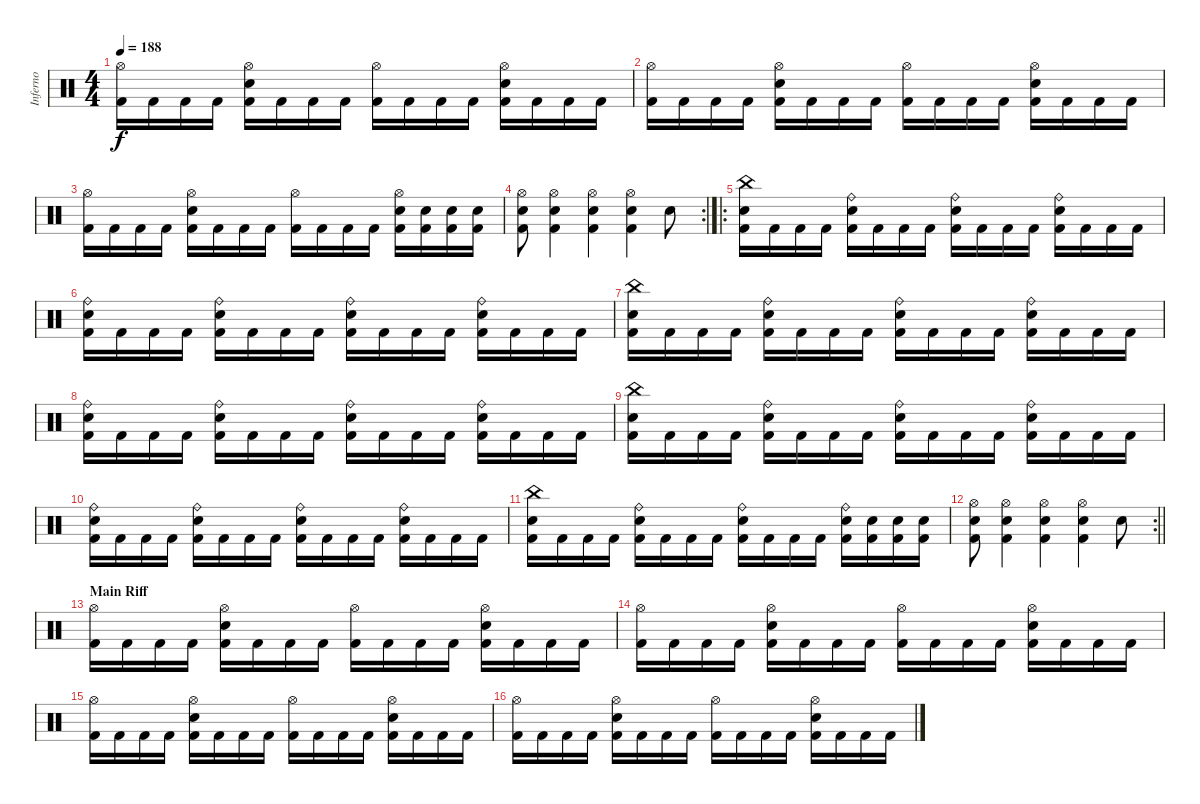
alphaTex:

\track ("Inferno" "Inferno") {instrument percussion}
\staff {score}
\articulation defaults
\ts (4 4)
\tempo 188
\clef neutral
\ks c
("Hi-Hat (open)" "Kick (hit) 2").16{dy f} "Kick (hit) 2".16 "Kick (hit) 2".16 "Kick (hit) 2".16 ("Hi-Hat (open)" "Snare (hit) 2" "Kick (hit) 2").16 "Kick (hit) 2".16 "Kick (hit) 2".16 "Kick (hit) 2".16 ("Hi-Hat (open)" "Kick (hit) 2").16 "Kick (hit) 2".16 "Kick (hit) 2".16 "Kick (hit) 2".16 ("Hi-Hat (open)" "Snare (hit) 2" "Kick (hit) 2").16 "Kick (hit) 2".16 "Kick (hit) 2".16 "Kick (hit) 2".16 |
("Hi-Hat (open)" "Kick (hit) 2").16 "Kick (hit) 2".16 "Kick (hit) 2".16 "Kick (hit) 2".16 ("Hi-Hat (open)" "Snare (hit) 2" "Kick (hit) 2").16 "Kick (hit) 2".16 "Kick (hit) 2".16 "Kick (hit) 2".16 ("Hi-Hat (open)" "Kick (hit) 2").16 "Kick (hit) 2".16 "Kick (hit) 2".16 "Kick (hit) 2".16 ("Hi-Hat (open)" "Snare (hit) 2" "Kick (hit) 2").16 "Kick (hit) 2".16 "Kick (hit) 2".16 "Kick (hit) 2".16 |
("Hi-Hat (open)" "Kick (hit) 2").16 "Kick (hit) 2".16 "Kick (hit) 2".16 "Kick (hit) 2".16 ("Hi-Hat (open)" "Snare (hit) 2" "Kick (hit) 2").16 "Kick (hit) 2".16 "Kick (hit) 2".16 "Kick (hit) 2".16 ("Hi-Hat (open)" "Kick (hit) 2").16 "Kick (hit) 2".16 "Kick (hit) 2".16 "Kick (hit) 2".16 ("Hi-Hat (open)" "Snare (hit) 2" "Kick (hit) 2").16 ("Snare (hit) 2" "Kick (hit) 2").16 ("Snare (hit) 2" "Kick (hit) 2").16 ("Snare (hit) 2" "Kick (hit) 2").16 |
\rc 2
("Hi-Hat (open)" "Snare (hit) 2" "Kick (hit) 2").8 ("Hi-Hat (open)" "Snare (hit) 2" "Kick (hit) 2").4 ("Hi-Hat (open)" "Snare (hit) 2" "Kick (hit) 2").4 ("Hi-Hat (open)" "Snare (hit) 2" "Kick (hit) 2").4 "Snare (hit) 2".8 |
\ro
("China (hit)" "Snare (hit) 2" "Kick (hit) 2").16 "Kick (hit) 2".16 "Kick (hit) 2".16 "Kick (hit) 2".16 ("Ride (bell)" "Snare (hit) 2" "Kick (hit) 2").16 "Kick (hit) 2".16 "Kick (hit) 2".16 "Kick (hit) 2".16 ("Ride (bell)" "Snare (hit) 2" "Kick (hit) 2").16 "Kick (hit) 2".16 "Kick (hit) 2".16 "Kick (hit) 2".16 ("Ride (bell)" "Snare (hit) 2" "Kick (hit) 2").16 "Kick (hit) 2".16 "Kick (hit) 2".16 "Kick (hit) 2".16 |
("Ride (bell)" "Snare (hit) 2" "Kick (hit) 2").16 "Kick (hit) 2".16 "Kick (hit) 2".16 "Kick (hit) 2".16 ("Ride (bell)" "Snare (hit) 2" "Kick (hit) 2").16 "Kick (hit) 2".16 "Kick (hit) 2".16 "Kick (hit) 2".16 ("Ride (bell)" "Snare (hit) 2" "Kick (hit) 2").16 "Kick (hit) 2".16 "Kick (hit) 2".16 "Kick (hit) 2".16 ("Ride (bell)" "Snare (hit) 2" "Kick (hit) 2").16 "Kick (hit) 2".16 "Kick (hit) 2".16 "Kick (hit) 2".16 |
("China (hit)" "Snare (hit) 2" "Kick (hit) 2").16 "Kick (hit) 2".16 "Kick (hit) 2".16 "Kick (hit) 2".16 ("Ride (bell)" "Snare (hit) 2" "Kick (hit) 2").16 "Kick (hit) 2".16 "Kick (hit) 2".16 "Kick (hit) 2".16 ("Ride (bell)" "Snare (hit) 2" "Kick (hit) 2").16 "Kick (hit) 2".16 "Kick (hit) 2".16 "Kick (hit) 2".16 ("Ride (bell)" "Snare (hit) 2" "Kick (hit) 2").16 "Kick (hit) 2".16 "Kick (hit) 2".16 "Kick (hit) 2".16 |
("Ride (bell)" "Snare (hit) 2" "Kick (hit) 2").16 "Kick (hit) 2".16 "Kick (hit) 2".16 "Kick (hit) 2".16 ("Ride (bell)" "Snare (hit) 2" "Kick (hit) 2").16 "Kick (hit) 2".16 "Kick (hit) 2".16 "Kick (hit) 2".16 ("Ride (bell)" "Snare (hit) 2" "Kick (hit) 2").16 "Kick (hit) 2".16 "Kick (hit) 2".16 "Kick (hit) 2".16 ("Ride (bell)" "Snare (hit) 2" "Kick (hit) 2").16 "Kick (hit) 2".16 "Kick (hit) 2".16 "Kick (hit) 2".16 |
("China (hit)" "Snare (hit) 2" "Kick (hit) 2").16 "Kick (hit) 2".16 "Kick (hit) 2".16 "Kick (hit) 2".16 ("Ride (bell)" "Snare (hit) 2" "Kick (hit) 2").16 "Kick (hit) 2".16 "Kick (hit) 2".16 "Kick (hit) 2".16 ("Ride (bell)" "Snare (hit) 2" "Kick (hit) 2").16 "Kick (hit) 2".16 "Kick (hit) 2".16 "Kick (hit) 2".16 ("Ride (bell)" "Snare (hit) 2" "Kick (hit) 2").16 "Kick (hit) 2".16 "Kick (hit) 2".16 "Kick (hit) 2".16 |
("Ride (bell)" "Snare (hit) 2" "Kick (hit) 2").16 "Kick (hit) 2".16 "Kick (hit) 2".16 "Kick (hit) 2".16 ("Ride (bell)" "Snare (hit) 2" "Kick (hit) 2").16 "Kick (hit) 2".16 "Kick (hit) 2".16 "Kick (hit) 2".16 ("Ride (bell)" "Snare (hit) 2" "Kick (hit) 2").16 "Kick (hit) 2".16 "Kick (hit) 2".16 "Kick (hit) 2".16 ("Ride (bell)" "Snare (hit) 2" "Kick (hit) 2").16 "Kick (hit) 2".16 "Kick (hit) 2".16 "Kick (hit) 2".16 |
("China (hit)" "Snare (hit) 2" "Kick (hit) 2").16 "Kick (hit) 2".16 "Kick (hit) 2".16 "Kick (hit) 2".16 ("Ride (bell)" "Snare (hit) 2" "Kick (hit) 2").16 "Kick (hit) 2".16 "Kick (hit) 2".16 "Kick (hit) 2".16 ("Ride (bell)" "Snare (hit) 2" "Kick (hit) 2").16 "Kick (hit) 2".16 "Kick (hit) 2".16 "Kick (hit) 2".16 ("Ride (bell)" "Snare (hit) 2" "Kick (hit) 2").16 ("Snare (hit) 2" "Kick (hit) 2").16 ("Snare (hit) 2" "Kick (hit) 2").16 ("Snare (hit) 2" "Kick (hit) 2").16 |
\rc 2
\barLineRight lightlight
("Hi-Hat (open)" "Snare (hit) 2" "Kick (hit) 2").8 ("Hi-Hat (open)" "Snare (hit) 2" "Kick (hit) 2").4 ("Hi-Hat (open)" "Snare (hit) 2" "Kick (hit) 2").4 ("Hi-Hat (open)" "Snare (hit) 2" "Kick (hit) 2").4 "Snare (hit) 2".8 |
\section ("" "Main Riff")
("Hi-Hat (open)" "Kick (hit) 2").16 "Kick (hit) 2".16 "Kick (hit) 2".16 "Kick (hit) 2".16 ("Hi-Hat (open)" "Snare (hit) 2" "Kick (hit) 2").16 "Kick (hit) 2".16 "Kick (hit) 2".16 "Kick (hit) 2".16 ("Hi-Hat (open)" "Kick (hit) 2").16 "Kick (hit) 2".16 "Kick (hit) 2".16 "Kick (hit) 2".16 ("Hi-Hat (open)" "Snare (hit) 2" "Kick (hit) 2").16 "Kick (hit) 2".16 "Kick (hit) 2".16 "Kick (hit) 2".16 |
("Hi-Hat (open)" "Kick (hit) 2").16 "Kick (hit) 2".16 "Kick (hit) 2".16 "Kick (hit) 2".16 ("Hi-Hat (open)" "Snare (hit) 2" "Kick (hit) 2").16 "Kick (hit) 2".16 "Kick (hit) 2".16 "Kick (hit) 2".16 ("Hi-Hat (open)" "Kick (hit) 2").16 "Kick (hit) 2".16 "Kick (hit) 2".16 "Kick (hit) 2".16 ("Hi-Hat (open)" "Snare (hit) 2" "Kick (hit) 2").16 "Kick (hit) 2".16 "Kick (hit) 2".16 "Kick (hit) 2".16 |
("Hi-Hat (open)" "Kick (hit) 2").16 "Kick (hit) 2".16 "Kick (hit) 2".16 "Kick (hit) 2".16 ("Hi-Hat (open)" "Snare (hit) 2" "Kick (hit) 2").16 "Kick (hit) 2".16 "Kick (hit) 2".16 "Kick (hit) 2".16 ("Hi-Hat (open)" "Kick (hit) 2").16 "Kick (hit) 2".16 "Kick (hit) 2".16 "Kick (hit) 2".16 ("Hi-Hat (open)" "Snare (hit) 2" "Kick (hit) 2").16 "Kick (hit) 2".16 "Kick (hit) 2".16 "Kick (hit) 2".16 |
("Hi-Hat (open)" "Kick (hit) 2").16 "Kick (hit) 2".16 "Kick (hit) 2".16 "Kick (hit) 2".16 ("Hi-Hat (open)" "Snare (hit) 2" "Kick (hit) 2").16 "Kick (hit) 2".16 "Kick (hit) 2".16 "Kick (hit) 2".16 ("Hi-Hat (open)" "Kick (hit) 2").16 "Kick (hit) 2".16 "Kick (hit) 2".16 "Kick (hit) 2".16 ("Hi-Hat (open)" "Snare (hit) 2" "Kick (hit) 2").16 "Kick (hit) 2".16 "Kick (hit) 2".16 "Kick (hit) 2".16
